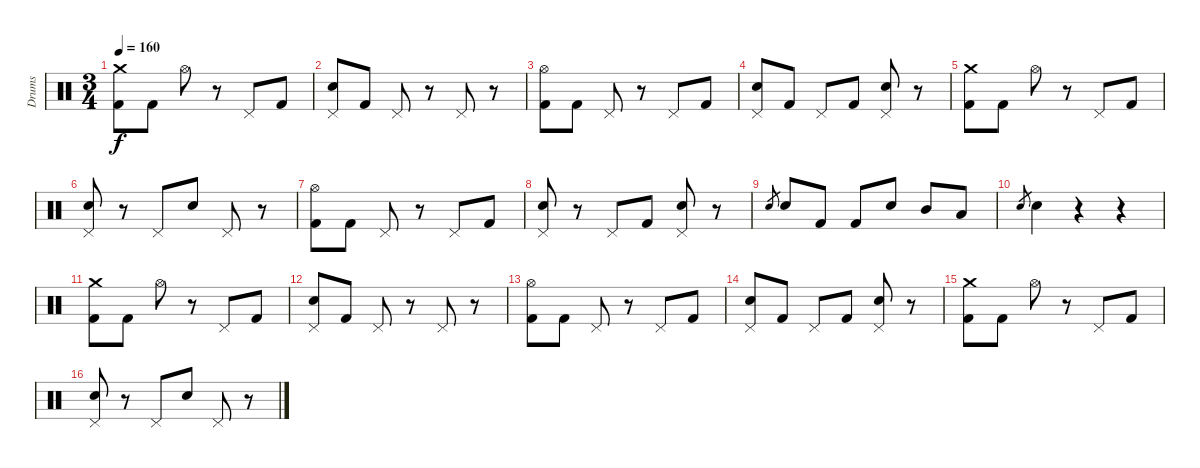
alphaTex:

\track ("Drums" "Drums") {instrument percussion}
\staff {score}
\articulation defaults
\ts (3 4)
\tempo 160
\clef neutral
\ks c
("Crash medium (hit)" "Kick (hit) 2").8{dy f} "Kick (hit) 2".8 "Hi-Hat (open)".8 r.8 "Pedal Hi-Hat (hit)".8 "Kick (hit) 2".8 |
("Pedal Hi-Hat (hit)" "Snare (hit) 2").8 "Kick (hit) 2".8 "Pedal Hi-Hat (hit)".8 r.8 "Pedal Hi-Hat (hit)".8 r.8 |
("Hi-Hat (open)" "Kick (hit) 2").8 "Kick (hit) 2".8 "Pedal Hi-Hat (hit)".8 r.8 "Pedal Hi-Hat (hit)".8 "Kick (hit) 2".8 |
("Pedal Hi-Hat (hit)" "Snare (hit) 2").8 "Kick (hit) 2".8 "Pedal Hi-Hat (hit)".8 "Kick (hit) 2".8 ("Pedal Hi-Hat (hit)" "Snare (hit) 2").8 r.8 |
("Crash medium (hit)" "Kick (hit) 2").8 "Kick (hit) 2".8 "Hi-Hat (open)".8 r.8 "Pedal Hi-Hat (hit)".8 "Kick (hit) 2".8 |
("Pedal Hi-Hat (hit)" "Snare (hit) 2").8 r.8 "Pedal Hi-Hat (hit)".8 "Snare (hit) 2".8 "Pedal Hi-Hat (hit)".8 r.8 |
("Hi-Hat (open)" "Kick (hit) 2").8 "Kick (hit) 2".8 "Pedal Hi-Hat (hit)".8 r.8 "Pedal Hi-Hat (hit)".8 "Kick (hit) 2".8 |
("Pedal Hi-Hat (hit)" "Snare (hit) 2").8 r.8 "Pedal Hi-Hat (hit)".8 "Kick (hit) 2".8 ("Pedal Hi-Hat (hit)" "Snare (hit) 2").8 r.8 |
"Snare (hit) 2".8{gr} "Snare (hit) 2".8 "Kick (hit) 2".8 "Kick (hit) 2".8 "Snare (hit) 2".8 "Mid Tom (hit)".8 "Low Tom (hit)".8 |
"Snare (hit) 2".8{gr} "Snare (hit) 2".4 r.4 r.4 |
("Crash medium (hit)" "Kick (hit) 2").8 "Kick (hit) 2".8 "Hi-Hat (open)".8 r.8 "Pedal Hi-Hat (hit)".8 "Kick (hit) 2".8 |
("Pedal Hi-Hat (hit)" "Snare (hit) 2").8 "Kick (hit) 2".8 "Pedal Hi-Hat (hit)".8 r.8 "Pedal Hi-Hat (hit)".8 r.8 |
("Hi-Hat (open)" "Kick (hit) 2").8 "Kick (hit) 2".8 "Pedal Hi-Hat (hit)".8 r.8 "Pedal Hi-Hat (hit)".8 "Kick (hit) 2".8 |
("Pedal Hi-Hat (hit)" "Snare (hit) 2").8 "Kick (hit) 2".8 "Pedal Hi-Hat (hit)".8 "Kick (hit) 2".8 ("Pedal Hi-Hat (hit)" "Snare (hit) 2").8 r.8 |
("Crash medium (hit)" "Kick (hit) 2").8 "Kick (hit) 2".8 "Hi-Hat (open)".8 r.8 "Pedal Hi-Hat (hit)".8 "Kick (hit) 2".8 |
("Pedal Hi-Hat (hit)" "Snare (hit) 2").8 r.8 "Pedal Hi-Hat (hit)".8 "Snare (hit) 2".8 "Pedal Hi-Hat (hit)".8 r.8
